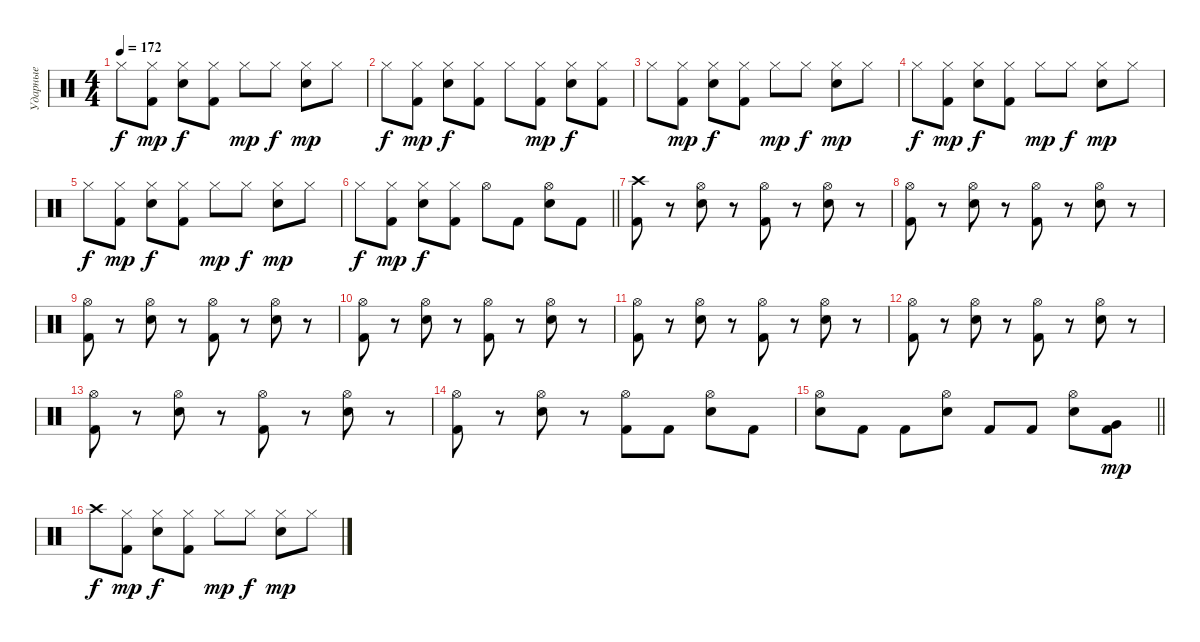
\track ("Ударные" "Ударные") {instrument percussion}
\staff {score}
\articulation defaults
\ts (4 4)
\tempo 172
\clef neutral
\ks c "Hi-Hat (closed)".8{dy f}
("Hi-Hat (closed)" "Kick (hit) 2").8{dy mp} ("Hi-Hat (closed)" "Snare (hit) 2").8{dy f} ("Hi-Hat (closed)" "Kick (hit) 2").8 "Hi-Hat (closed)".8{dy mp} "Hi-Hat (closed)".8{dy f} ("Hi-Hat (closed)" "Snare (hit) 2").8{dy mp} "Hi-Hat (closed)".8 |
"Hi-Hat (closed)".8{dy f} ("Hi-Hat (closed)" "Kick (hit) 2").8{dy mp} ("Hi-Hat (closed)" "Snare (hit) 2").8{dy f} ("Hi-Hat (closed)" "Kick (hit) 2").8 "Hi-Hat (closed)".8 ("Hi-Hat (closed)" "Kick (hit) 2").8{dy mp} ("Hi-Hat (closed)" "Snare (hit) 2").8{dy f} ("Hi-Hat (closed)" "Kick (hit) 2").8 |
"Hi-Hat (closed)".8 ("Hi-Hat (closed)" "Kick (hit) 2").8{dy mp} ("Hi-Hat (closed)" "Snare (hit) 2").8{dy f} ("Hi-Hat (closed)" "Kick (hit) 2").8 "Hi-Hat (closed)".8{dy mp} "Hi-Hat (closed)".8{dy f} ("Hi-Hat (closed)" "Snare (hit) 2").8{dy mp} "Hi-Hat (closed)".8 |
"Hi-Hat (closed)".8{dy f} ("Hi-Hat (closed)" "Kick (hit) 2").8{dy mp} ("Hi-Hat (closed)" "Snare (hit) 2").8{dy f} ("Hi-Hat (closed)" "Kick (hit) 2").8 "Hi-Hat (closed)".8{dy mp} "Hi-Hat (closed)".8{dy f} ("Hi-Hat (closed)" "Snare (hit) 2").8{dy mp} "Hi-Hat (closed)".8 |
"Hi-Hat (closed)".8{dy f} ("Hi-Hat (closed)" "Kick (hit) 2").8{dy mp} ("Hi-Hat (closed)" "Snare (hit) 2").8{dy f} ("Hi-Hat (closed)" "Kick (hit) 2").8 "Hi-Hat (closed)".8{dy mp} "Hi-Hat (closed)".8{dy f} ("Hi-Hat (closed)" "Snare (hit) 2").8{dy mp} "Hi-Hat (closed)".8 |
\barLineRight lightlight "Hi-Hat (closed)".8{dy f}
("Hi-Hat (closed)" "Kick (hit) 2").8{dy mp} ("Hi-Hat (closed)" "Snare (hit) 2").8{dy f} ("Hi-Hat (closed)" "Kick (hit) 2").8 "Hi-Hat (open)".8 "Kick (hit) 2".8 ("Hi-Hat (open)" "Snare (hit) 2").8 "Kick (hit) 2".8 |
\section ("" "")
("Crash high (hit)" "Kick (hit) 2").8 r.8 ("Hi-Hat (open)" "Snare (hit) 2").8 r.8 ("Hi-Hat (open)" "Kick (hit) 2").8 r.8 ("Hi-Hat (open)" "Snare (hit) 2").8 r.8 |
("Hi-Hat (open)" "Kick (hit) 2").8 r.8 ("Hi-Hat (open)" "Snare (hit) 2").8 r.8 ("Hi-Hat (open)" "Kick (hit) 2").8 r.8 ("Hi-Hat (open)" "Snare (hit) 2").8 r.8 |
("Hi-Hat (open)" "Kick (hit) 2").8 r.8 ("Hi-Hat (open)" "Snare (hit) 2").8 r.8 ("Hi-Hat (open)" "Kick (hit) 2").8 r.8 ("Hi-Hat (open)" "Snare (hit) 2").8 r.8 |
("Hi-Hat (open)" "Kick (hit) 2").8 r.8 ("Hi-Hat (open)" "Snare (hit) 2").8 r.8 ("Hi-Hat (open)" "Kick (hit) 2").8 r.8 ("Hi-Hat (open)" "Snare (hit) 2").8 r.8 |
("Hi-Hat (open)" "Kick (hit) 2").8 r.8 ("Hi-Hat (open)" "Snare (hit) 2").8 r.8 ("Hi-Hat (open)" "Kick (hit) 2").8 r.8 ("Hi-Hat (open)" "Snare (hit) 2").8 r.8 |
("Hi-Hat (open)" "Kick (hit) 2").8 r.8 ("Hi-Hat (open)" "Snare (hit) 2").8 r.8 ("Hi-Hat (open)" "Kick (hit) 2").8 r.8 ("Hi-Hat (open)" "Snare (hit) 2").8 r.8 |
("Hi-Hat (open)" "Kick (hit) 2").8 r.8 ("Hi-Hat (open)" "Snare (hit) 2").8 r.8 ("Hi-Hat (open)" "Kick (hit) 2").8 r.8 ("Hi-Hat (open)" "Snare (hit) 2").8 r.8 |
("Hi-Hat (open)" "Kick (hit) 2").8 r.8 ("Hi-Hat (open)" "Snare (hit) 2").8 r.8 ("Hi-Hat (open)" "Kick (hit) 2").8 "Kick (hit) 2".8 ("Hi-Hat (open)" "Snare (hit) 2").8 "Kick (hit) 2".8 |
\barLineRight lightlight
("Hi-Hat (open)" "Snare (hit) 2").8 "Kick (hit) 2".8 "Kick (hit) 2".8 ("Hi-Hat (open)" "Snare (hit) 2").8 "Kick (hit) 2".8 "Kick (hit) 2".8 ("Hi-Hat (open)" "Snare (hit) 2").8 ("Very Low Tom (hit)" "Kick (hit) 2").8{dy mp} |
\section ("" "")
"Crash high (hit)".8{dy f} ("Hi-Hat (closed)" "Kick (hit) 2").8{dy mp} ("Hi-Hat (closed)" "Snare (hit) 2").8{dy f} ("Hi-Hat (closed)" "Kick (hit) 2").8 "Hi-Hat (closed)".8{dy mp} "Hi-Hat (closed)".8{dy f} ("Hi-Hat (closed)" "Snare (hit) 2").8{dy mp} "Hi-Hat (closed)".8
